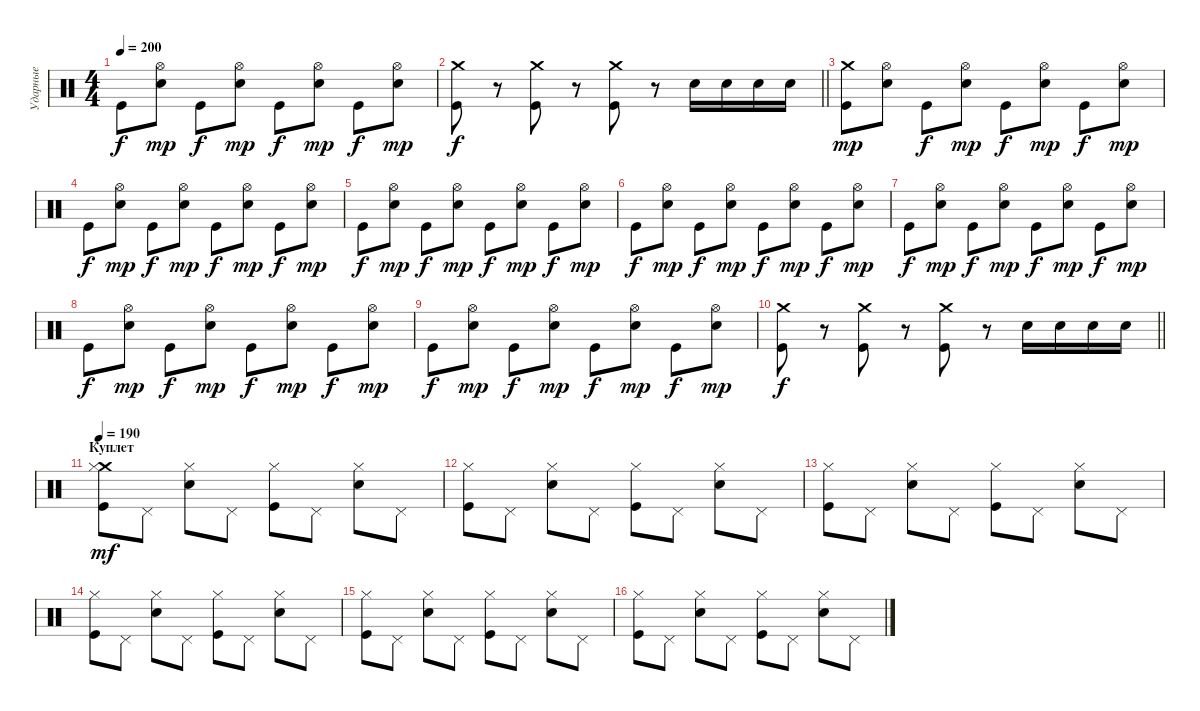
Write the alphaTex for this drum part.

\track ("Ударные" "Ударные") {instrument percussion}
\staff {score}
\articulation defaults
\ts (4 4)
\tempo 200
\clef neutral
\ks c "Kick (hit)".8{dy f}
("Hi-Hat (open)" "Electric Snare (hit)").8{dy mp} "Kick (hit)".8{dy f} ("Hi-Hat (open)" "Electric Snare (hit)").8{dy mp} "Kick (hit)".8{dy f} ("Hi-Hat (open)" "Electric Snare (hit)").8{dy mp} "Kick (hit)".8{dy f} ("Hi-Hat (open)" "Electric Snare (hit)").8{dy mp} |
\barLineRight lightlight
("Crash medium (hit)" "Kick (hit)").8{dy f} r.8 ("Crash medium (hit)" "Kick (hit)").8 r.8 ("Crash medium (hit)" "Kick (hit)").8 r.8 "Electric Snare (hit)".16 "Electric Snare (hit)".16 "Electric Snare (hit)".16 "Electric Snare (hit)".16 |
("Crash medium (hit)" "Kick (hit)").8{dy mp} ("Hi-Hat (open)" "Electric Snare (hit)").8 "Kick (hit)".8{dy f} ("Hi-Hat (open)" "Electric Snare (hit)").8{dy mp} "Kick (hit)".8{dy f} ("Hi-Hat (open)" "Electric Snare (hit)").8{dy mp} "Kick (hit)".8{dy f} ("Hi-Hat (open)" "Electric Snare (hit)").8{dy mp} |
"Kick (hit)".8{dy f} ("Hi-Hat (open)" "Electric Snare (hit)").8{dy mp} "Kick (hit)".8{dy f} ("Hi-Hat (open)" "Electric Snare (hit)").8{dy mp} "Kick (hit)".8{dy f} ("Hi-Hat (open)" "Electric Snare (hit)").8{dy mp} "Kick (hit)".8{dy f} ("Hi-Hat (open)" "Electric Snare (hit)").8{dy mp} |
"Kick (hit)".8{dy f} ("Hi-Hat (open)" "Electric Snare (hit)").8{dy mp} "Kick (hit)".8{dy f} ("Hi-Hat (open)" "Electric Snare (hit)").8{dy mp} "Kick (hit)".8{dy f} ("Hi-Hat (open)" "Electric Snare (hit)").8{dy mp} "Kick (hit)".8{dy f} ("Hi-Hat (open)" "Electric Snare (hit)").8{dy mp} |
"Kick (hit)".8{dy f} ("Hi-Hat (open)" "Electric Snare (hit)").8{dy mp} "Kick (hit)".8{dy f} ("Hi-Hat (open)" "Electric Snare (hit)").8{dy mp} "Kick (hit)".8{dy f} ("Hi-Hat (open)" "Electric Snare (hit)").8{dy mp} "Kick (hit)".8{dy f} ("Hi-Hat (open)" "Electric Snare (hit)").8{dy mp} |
"Kick (hit)".8{dy f} ("Hi-Hat (open)" "Electric Snare (hit)").8{dy mp} "Kick (hit)".8{dy f} ("Hi-Hat (open)" "Electric Snare (hit)").8{dy mp} "Kick (hit)".8{dy f} ("Hi-Hat (open)" "Electric Snare (hit)").8{dy mp} "Kick (hit)".8{dy f} ("Hi-Hat (open)" "Electric Snare (hit)").8{dy mp} |
"Kick (hit)".8{dy f} ("Hi-Hat (open)" "Electric Snare (hit)").8{dy mp} "Kick (hit)".8{dy f} ("Hi-Hat (open)" "Electric Snare (hit)").8{dy mp} "Kick (hit)".8{dy f} ("Hi-Hat (open)" "Electric Snare (hit)").8{dy mp} "Kick (hit)".8{dy f} ("Hi-Hat (open)" "Electric Snare (hit)").8{dy mp} |
"Kick (hit)".8{dy f} ("Hi-Hat (open)" "Electric Snare (hit)").8{dy mp} "Kick (hit)".8{dy f} ("Hi-Hat (open)" "Electric Snare (hit)").8{dy mp} "Kick (hit)".8{dy f} ("Hi-Hat (open)" "Electric Snare (hit)").8{dy mp} "Kick (hit)".8{dy f} ("Hi-Hat (open)" "Electric Snare (hit)").8{dy mp} |
\barLineRight lightlight
("Crash medium (hit)" "Kick (hit)").8{dy f} r.8 ("Crash medium (hit)" "Kick (hit)").8 r.8 ("Crash medium (hit)" "Kick (hit)").8 r.8 "Electric Snare (hit)".16 "Electric Snare (hit)".16 "Electric Snare (hit)".16 "Electric Snare (hit)".16 |
\section ("" "Куплет")
\tempo 190
("Crash medium (hit)" "Kick (hit)" "Hi-Hat (closed)").8{dy mf} "Pedal Hi-Hat (hit)".8 ("Electric Snare (hit)" "Hi-Hat (closed)").8 "Pedal Hi-Hat (hit)".8 ("Kick (hit)" "Hi-Hat (closed)").8 "Pedal Hi-Hat (hit)".8 ("Electric Snare (hit)" "Hi-Hat (closed)").8 "Pedal Hi-Hat (hit)".8 |
("Kick (hit)" "Hi-Hat (closed)").8 "Pedal Hi-Hat (hit)".8 ("Electric Snare (hit)" "Hi-Hat (closed)").8 "Pedal Hi-Hat (hit)".8 ("Kick (hit)" "Hi-Hat (closed)").8 "Pedal Hi-Hat (hit)".8 ("Electric Snare (hit)" "Hi-Hat (closed)").8 "Pedal Hi-Hat (hit)".8 |
("Kick (hit)" "Hi-Hat (closed)").8 "Pedal Hi-Hat (hit)".8 ("Electric Snare (hit)" "Hi-Hat (closed)").8 "Pedal Hi-Hat (hit)".8 ("Kick (hit)" "Hi-Hat (closed)").8 "Pedal Hi-Hat (hit)".8 ("Electric Snare (hit)" "Hi-Hat (closed)").8 "Pedal Hi-Hat (hit)".8 |
("Kick (hit)" "Hi-Hat (closed)").8 "Pedal Hi-Hat (hit)".8 ("Electric Snare (hit)" "Hi-Hat (closed)").8 "Pedal Hi-Hat (hit)".8 ("Kick (hit)" "Hi-Hat (closed)").8 "Pedal Hi-Hat (hit)".8 ("Electric Snare (hit)" "Hi-Hat (closed)").8 "Pedal Hi-Hat (hit)".8 |
("Kick (hit)" "Hi-Hat (closed)").8 "Pedal Hi-Hat (hit)".8 ("Electric Snare (hit)" "Hi-Hat (closed)").8 "Pedal Hi-Hat (hit)".8 ("Kick (hit)" "Hi-Hat (closed)").8 "Pedal Hi-Hat (hit)".8 ("Electric Snare (hit)" "Hi-Hat (closed)").8 "Pedal Hi-Hat (hit)".8 |
("Kick (hit)" "Hi-Hat (closed)").8 "Pedal Hi-Hat (hit)".8 ("Electric Snare (hit)" "Hi-Hat (closed)").8 "Pedal Hi-Hat (hit)".8 ("Kick (hit)" "Hi-Hat (closed)").8 "Pedal Hi-Hat (hit)".8 ("Electric Snare (hit)" "Hi-Hat (closed)").8 "Pedal Hi-Hat (hit)".8
